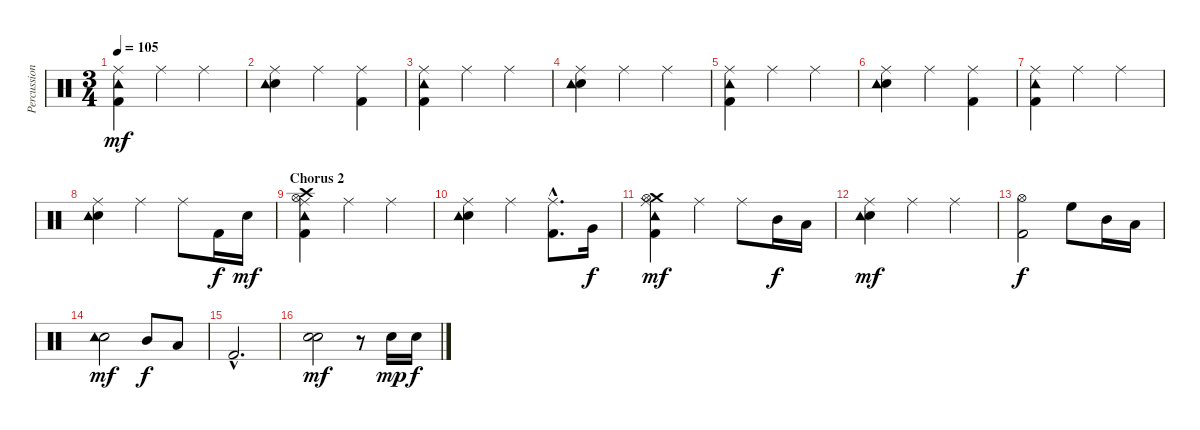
\track ("Percussion" "Percussion") {instrument percussion}
\staff {score}
\articulation defaults
\ts (3 4)
\tempo 105
\clef neutral
\ks c
("Kick (hit) 2" "Tambourine (hit)" "Ride (middle)").4{dy mf} "Ride (middle)".4 "Ride (middle)".4 |
("Snare (hit) 2" "Tambourine (hit)" "Ride (middle)").4 "Ride (middle)".4 ("Kick (hit) 2" "Ride (middle)").4 |
("Kick (hit) 2" "Tambourine (hit)" "Ride (middle)").4 "Ride (middle)".4 "Ride (middle)".4 |
("Snare (hit) 2" "Tambourine (hit)" "Ride (middle)").4 "Ride (middle)".4 "Ride (middle)".4 |
("Kick (hit) 2" "Tambourine (hit)" "Ride (middle)").4 "Ride (middle)".4 "Ride (middle)".4 |
("Snare (hit) 2" "Tambourine (hit)" "Ride (middle)").4 "Ride (middle)".4 ("Kick (hit) 2" "Ride (middle)").4 |
("Kick (hit) 2" "Tambourine (hit)" "Ride (middle)").4 "Ride (middle)".4 "Ride (middle)".4 |
("Snare (hit) 2" "Tambourine (hit)" "Ride (middle)").4 "Ride (middle)".4 "Ride (middle)".8 "Kick (hit) 2".16{dy f} "Snare (hit) 2".16{dy mf} |
\section ("" "Chorus 2")
("Kick (hit) 2" "Tambourine (hit)" "Crash high (hit)" "Hi-Hat (open)" "Ride (middle)").4 "Ride (middle)".4 "Ride (middle)".4 |
("Snare (hit) 2" "Tambourine (hit)" "Ride (middle)").4 "Ride (middle)".4 ("Kick (hit) 2"{hac} "Ride (middle)"{hac}).8{d} "Very Low Tom (hit)".16{dy f} |
("Kick (hit) 2" "Tambourine (hit)" "Crash medium (hit)" "Hi-Hat (open)" "Ride (middle)").4{dy mf} "Ride (middle)".4 "Ride (middle)".8 "Mid Tom (hit)".16{dy f} "Low Tom (hit)".16 |
("Snare (hit) 2" "Tambourine (hit)" "Ride (middle)").4{dy mf} "Ride (middle)".4 "Ride (middle)".4 |
("Kick (hit) 2" "Hi-Hat (open)").2{dy f} "High Floor Tom (hit)".8 "Mid Tom (hit)".16 "Low Tom (hit)".16 |
("Snare (hit) 2" "Tambourine (hit)").2{dy mf} "Mid Tom (hit)".8{dy f} "Low Tom (hit)".8 |
"Kick (hit) 2"{hac}.2{d} |
("Snare (hit) 2" "Snare (hit) 2").2{bd 240 dy mf} r.8 "Snare (hit) 2".16{dy mp} "Snare (hit) 2".16{dy f}
